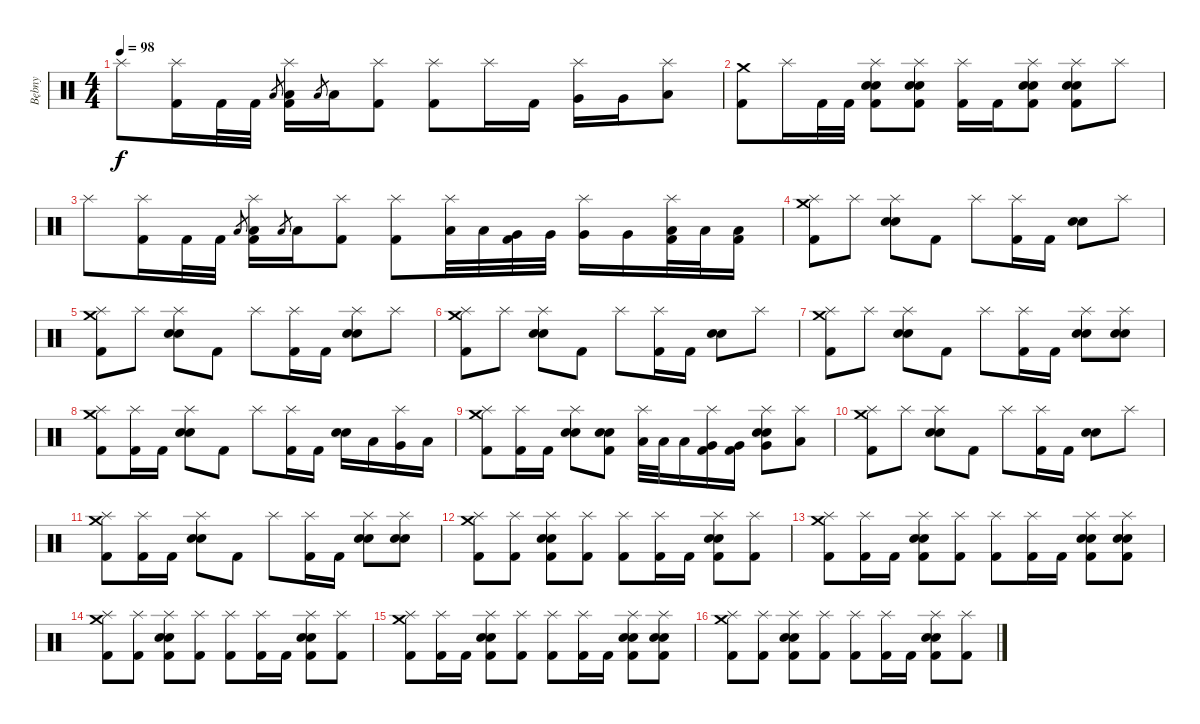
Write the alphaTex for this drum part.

\track ("Bębny" "Bębny") {instrument percussion}
\staff {score}
\articulation defaults
\ts (4 4)
\tempo 98
\clef neutral
\ks c "Splash (hit)".8{dy f}
("Splash (hit)" "Kick (hit) 2").16 "Kick (hit) 2".32 "Kick (hit) 2".32 "Low Tom (hit)".8{gr} ("Splash (hit)" "Low Tom (hit)" "Kick (hit) 2").16 "Low Tom (hit)".8{gr} "Low Tom (hit)".16 ("Splash (hit)" "Kick (hit) 2").8 ("Splash (hit)" "Kick (hit) 2").8 "Splash (hit)".16 "Kick (hit) 2".16 ("Splash (hit)" "Very Low Tom (hit)").16 "Very Low Tom (hit)".16 ("Splash (hit)" "Low Floor Tom (hit)").8 |
("Crash medium (hit)" "Kick (hit) 2").8 "Splash (hit)".16 "Kick (hit) 2".32 "Kick (hit) 2".32 ("Splash (hit)" "Snare (hit) 2" "Electric Snare (hit)" "Kick (hit) 2").8 ("Splash (hit)" "Snare (hit) 2" "Electric Snare (hit)" "Kick (hit) 2").8 ("Splash (hit)" "Kick (hit) 2").16 "Kick (hit) 2".16 ("Splash (hit)" "Snare (hit) 2" "Electric Snare (hit)" "Kick (hit) 2").8 ("Splash (hit)" "Snare (hit) 2" "Electric Snare (hit)" "Kick (hit) 2").8 "Splash (hit)".8 |
"Splash (hit)".8 ("Splash (hit)" "Kick (hit) 2").16 "Kick (hit) 2".32 "Kick (hit) 2".32 "Low Tom (hit)".8{gr} ("Splash (hit)" "Low Tom (hit)" "Kick (hit) 2").16 "Low Tom (hit)".8{gr} "Low Tom (hit)".16 ("Splash (hit)" "Kick (hit) 2").8 ("Splash (hit)" "Kick (hit) 2").8 ("Splash (hit)" "Low Tom (hit)").32 "Low Tom (hit)".32 ("Very Low Tom (hit)" "Kick (hit) 2").32 "Very Low Tom (hit)".32 ("Splash (hit)" "Very Low Tom (hit)").16 "Very Low Tom (hit)".16 ("Splash (hit)" "Low Floor Tom (hit)" "Kick (hit) 2").32 "Low Floor Tom (hit)".32 ("Low Floor Tom (hit)" "Kick (hit) 2").16 |
("Splash (hit)" "Crash medium (hit)" "Kick (hit) 2").8 "Splash (hit)".8 ("Splash (hit)" "Snare (hit) 2" "Electric Snare (hit)").8 "Kick (hit) 2".8 "Splash (hit)".8 ("Splash (hit)" "Kick (hit) 2").16 "Kick (hit) 2".16 ("Snare (hit) 2" "Electric Snare (hit)").8 "Splash (hit)".8 |
("Splash (hit)" "Crash medium (hit)" "Kick (hit) 2").8 "Splash (hit)".8 ("Splash (hit)" "Snare (hit) 2" "Electric Snare (hit)").8 "Kick (hit) 2".8 "Splash (hit)".8 ("Splash (hit)" "Kick (hit) 2").16 "Kick (hit) 2".16 ("Splash (hit)" "Snare (hit) 2" "Electric Snare (hit)").8 "Splash (hit)".8 |
("Splash (hit)" "Crash medium (hit)" "Kick (hit) 2").8 "Splash (hit)".8 ("Splash (hit)" "Snare (hit) 2" "Electric Snare (hit)").8 "Kick (hit) 2".8 "Splash (hit)".8 ("Splash (hit)" "Kick (hit) 2").16 "Kick (hit) 2".16 ("Snare (hit) 2" "Electric Snare (hit)").8 "Splash (hit)".8 |
("Splash (hit)" "Crash medium (hit)" "Kick (hit) 2").8 "Splash (hit)".8 ("Splash (hit)" "Snare (hit) 2" "Electric Snare (hit)").8 "Kick (hit) 2".8 "Splash (hit)".8 ("Splash (hit)" "Kick (hit) 2").16 "Kick (hit) 2".16 ("Splash (hit)" "Snare (hit) 2" "Electric Snare (hit)").8 ("Splash (hit)" "Snare (hit) 2" "Electric Snare (hit)").8 |
("Splash (hit)" "Crash medium (hit)" "Kick (hit) 2").8 ("Splash (hit)" "Kick (hit) 2").16 "Kick (hit) 2".16 ("Splash (hit)" "Snare (hit) 2" "Electric Snare (hit)").8 "Kick (hit) 2".8 "Splash (hit)".8 ("Splash (hit)" "Kick (hit) 2").16 "Kick (hit) 2".16 ("Snare (hit) 2" "Electric Snare (hit)").16 "Low Tom (hit)".16 ("Splash (hit)" "Very Low Tom (hit)").16 "Low Floor Tom (hit)".16 |
("Splash (hit)" "Crash medium (hit)" "Kick (hit) 2").8 ("Splash (hit)" "Kick (hit) 2").16 "Kick (hit) 2".16 ("Splash (hit)" "Snare (hit) 2" "Electric Snare (hit)").8 ("Snare (hit) 2" "Electric Snare (hit)" "Kick (hit) 2").8 ("Splash (hit)" "Low Tom (hit)").32 "Low Tom (hit)".32 "Low Tom (hit)".16 ("Splash (hit)" "Very Low Tom (hit)" "Kick (hit) 2").16 ("Very Low Tom (hit)" "Kick (hit) 2").16 ("Splash (hit)" "Very Low Tom (hit)" "Snare (hit) 2" "Electric Snare (hit)").8 ("Splash (hit)" "Low Floor Tom (hit)").8 |
("Splash (hit)" "Crash medium (hit)" "Kick (hit) 2").8 "Splash (hit)".8 ("Splash (hit)" "Snare (hit) 2" "Electric Snare (hit)").8 "Kick (hit) 2".8 "Splash (hit)".8 ("Splash (hit)" "Kick (hit) 2").16 "Kick (hit) 2".16 ("Snare (hit) 2" "Electric Snare (hit)").8 "Splash (hit)".8 |
("Splash (hit)" "Crash medium (hit)" "Kick (hit) 2").8 ("Splash (hit)" "Kick (hit) 2").16 "Kick (hit) 2".16 ("Splash (hit)" "Snare (hit) 2" "Electric Snare (hit)").8 "Kick (hit) 2".8 "Splash (hit)".8 ("Splash (hit)" "Kick (hit) 2").16 "Kick (hit) 2".16 ("Splash (hit)" "Snare (hit) 2" "Electric Snare (hit)").8 ("Splash (hit)" "Snare (hit) 2" "Electric Snare (hit)").8 |
("Splash (hit)" "Crash medium (hit)" "Kick (hit) 2").8 ("Splash (hit)" "Kick (hit) 2").8 ("Splash (hit)" "Snare (hit) 2" "Electric Snare (hit)" "Kick (hit) 2").8 ("Splash (hit)" "Kick (hit) 2").8 ("Splash (hit)" "Kick (hit) 2").8 ("Splash (hit)" "Kick (hit) 2").16 "Kick (hit) 2".16 ("Splash (hit)" "Snare (hit) 2" "Electric Snare (hit)" "Kick (hit) 2").8 ("Splash (hit)" "Kick (hit) 2").8 |
("Splash (hit)" "Crash medium (hit)" "Kick (hit) 2").8 ("Splash (hit)" "Kick (hit) 2").16 "Kick (hit) 2".16 ("Splash (hit)" "Snare (hit) 2" "Electric Snare (hit)" "Kick (hit) 2").8 ("Splash (hit)" "Kick (hit) 2").8 ("Splash (hit)" "Kick (hit) 2").8 ("Splash (hit)" "Kick (hit) 2").16 "Kick (hit) 2".16 ("Splash (hit)" "Snare (hit) 2" "Electric Snare (hit)" "Kick (hit) 2").8 ("Splash (hit)" "Snare (hit) 2" "Electric Snare (hit)" "Kick (hit) 2").8 |
("Splash (hit)" "Crash medium (hit)" "Kick (hit) 2").8 ("Splash (hit)" "Kick (hit) 2").8 ("Splash (hit)" "Snare (hit) 2" "Electric Snare (hit)" "Kick (hit) 2").8 ("Splash (hit)" "Kick (hit) 2").8 ("Splash (hit)" "Kick (hit) 2").8 ("Splash (hit)" "Kick (hit) 2").16 "Kick (hit) 2".16 ("Splash (hit)" "Snare (hit) 2" "Electric Snare (hit)" "Kick (hit) 2").8 ("Splash (hit)" "Kick (hit) 2").8 |
("Splash (hit)" "Crash medium (hit)" "Kick (hit) 2").8 ("Splash (hit)" "Kick (hit) 2").16 "Kick (hit) 2".16 ("Splash (hit)" "Snare (hit) 2" "Electric Snare (hit)" "Kick (hit) 2").8 ("Splash (hit)" "Kick (hit) 2").8 ("Splash (hit)" "Kick (hit) 2").8 ("Splash (hit)" "Kick (hit) 2").16 "Kick (hit) 2".16 ("Splash (hit)" "Snare (hit) 2" "Electric Snare (hit)" "Kick (hit) 2").8 ("Splash (hit)" "Snare (hit) 2" "Electric Snare (hit)" "Kick (hit) 2").8 |
("Splash (hit)" "Crash medium (hit)" "Kick (hit) 2").8 ("Splash (hit)" "Kick (hit) 2").8 ("Splash (hit)" "Snare (hit) 2" "Electric Snare (hit)" "Kick (hit) 2").8 ("Splash (hit)" "Kick (hit) 2").8 ("Splash (hit)" "Kick (hit) 2").8 ("Splash (hit)" "Kick (hit) 2").16 "Kick (hit) 2".16 ("Splash (hit)" "Snare (hit) 2" "Electric Snare (hit)" "Kick (hit) 2").8 ("Splash (hit)" "Kick (hit) 2").8
